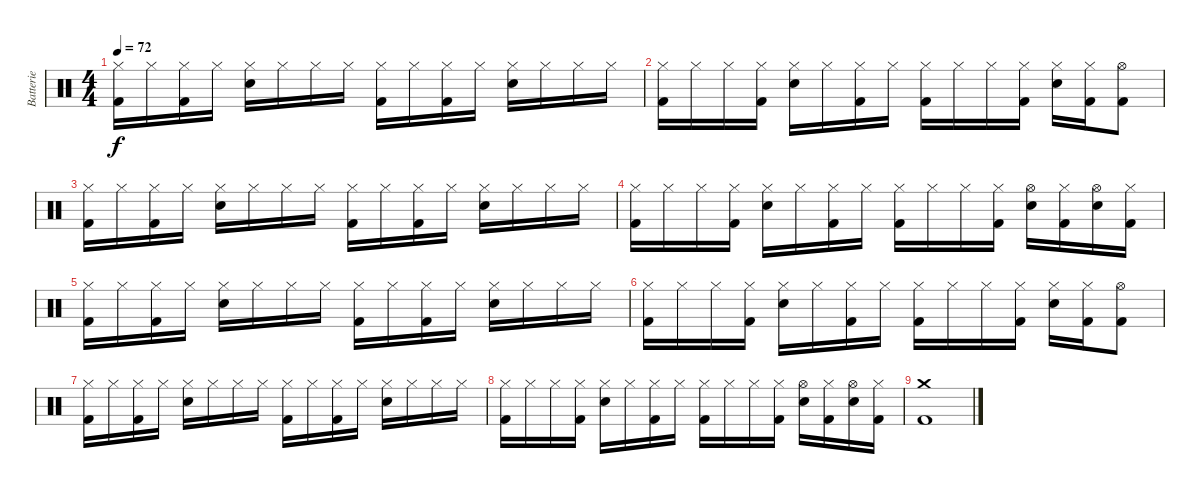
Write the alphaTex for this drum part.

\track ("Batterie" "Batterie") {instrument percussion}
\staff {score}
\articulation defaults
\ts (4 4)
\tempo 72
\clef neutral
\ks c
("Hi-Hat (closed)" "Kick (hit) 2").16{dy f} "Hi-Hat (closed)".16 ("Hi-Hat (closed)" "Kick (hit) 2").16 "Hi-Hat (closed)".16 ("Hi-Hat (closed)" "Snare (hit) 2").16 "Hi-Hat (closed)".16 "Hi-Hat (closed)".16 "Hi-Hat (closed)".16 ("Hi-Hat (closed)" "Kick (hit) 2").16 "Hi-Hat (closed)".16 ("Hi-Hat (closed)" "Kick (hit) 2").16 "Hi-Hat (closed)".16 ("Hi-Hat (closed)" "Snare (hit) 2").16 "Hi-Hat (closed)".16 "Hi-Hat (closed)".16 "Hi-Hat (closed)".16 |
("Hi-Hat (closed)" "Kick (hit) 2").16 "Hi-Hat (closed)".16 "Hi-Hat (closed)".16 ("Hi-Hat (closed)" "Kick (hit) 2").16 ("Hi-Hat (closed)" "Snare (hit) 2").16 "Hi-Hat (closed)".16 ("Hi-Hat (closed)" "Kick (hit) 2").16 "Hi-Hat (closed)".16 ("Hi-Hat (closed)" "Kick (hit) 2").16 "Hi-Hat (closed)".16 "Hi-Hat (closed)".16 ("Hi-Hat (closed)" "Kick (hit) 2").16 ("Hi-Hat (closed)" "Snare (hit) 2").16 ("Hi-Hat (closed)" "Kick (hit) 2").16 ("Hi-Hat (open)" "Kick (hit) 2").8 |
("Hi-Hat (closed)" "Kick (hit) 2").16 "Hi-Hat (closed)".16 ("Hi-Hat (closed)" "Kick (hit) 2").16 "Hi-Hat (closed)".16 ("Hi-Hat (closed)" "Snare (hit) 2").16 "Hi-Hat (closed)".16 "Hi-Hat (closed)".16 "Hi-Hat (closed)".16 ("Hi-Hat (closed)" "Kick (hit) 2").16 "Hi-Hat (closed)".16 ("Hi-Hat (closed)" "Kick (hit) 2").16 "Hi-Hat (closed)".16 ("Hi-Hat (closed)" "Snare (hit) 2").16 "Hi-Hat (closed)".16 "Hi-Hat (closed)".16 "Hi-Hat (closed)".16 |
("Hi-Hat (closed)" "Kick (hit) 2").16 "Hi-Hat (closed)".16 "Hi-Hat (closed)".16 ("Hi-Hat (closed)" "Kick (hit) 2").16 ("Hi-Hat (closed)" "Snare (hit) 2").16 "Hi-Hat (closed)".16 ("Hi-Hat (closed)" "Kick (hit) 2").16 "Hi-Hat (closed)".16 ("Hi-Hat (closed)" "Kick (hit) 2").16 "Hi-Hat (closed)".16 "Hi-Hat (closed)".16 ("Hi-Hat (closed)" "Kick (hit) 2").16 ("Hi-Hat (open)" "Snare (hit) 2").16 ("Hi-Hat (closed)" "Kick (hit) 2").16 ("Hi-Hat (open)" "Snare (hit) 2").16 ("Hi-Hat (closed)" "Kick (hit) 2").16 |
("Hi-Hat (closed)" "Kick (hit) 2").16 "Hi-Hat (closed)".16 ("Hi-Hat (closed)" "Kick (hit) 2").16 "Hi-Hat (closed)".16 ("Hi-Hat (closed)" "Snare (hit) 2").16 "Hi-Hat (closed)".16 "Hi-Hat (closed)".16 "Hi-Hat (closed)".16 ("Hi-Hat (closed)" "Kick (hit) 2").16 "Hi-Hat (closed)".16 ("Hi-Hat (closed)" "Kick (hit) 2").16 "Hi-Hat (closed)".16 ("Hi-Hat (closed)" "Snare (hit) 2").16 "Hi-Hat (closed)".16 "Hi-Hat (closed)".16 "Hi-Hat (closed)".16 |
("Hi-Hat (closed)" "Kick (hit) 2").16 "Hi-Hat (closed)".16 "Hi-Hat (closed)".16 ("Hi-Hat (closed)" "Kick (hit) 2").16 ("Hi-Hat (closed)" "Snare (hit) 2").16 "Hi-Hat (closed)".16 ("Hi-Hat (closed)" "Kick (hit) 2").16 "Hi-Hat (closed)".16 ("Hi-Hat (closed)" "Kick (hit) 2").16 "Hi-Hat (closed)".16 "Hi-Hat (closed)".16 ("Hi-Hat (closed)" "Kick (hit) 2").16 ("Hi-Hat (closed)" "Snare (hit) 2").16 ("Hi-Hat (closed)" "Kick (hit) 2").16 ("Hi-Hat (open)" "Kick (hit) 2").8 |
("Hi-Hat (closed)" "Kick (hit) 2").16 "Hi-Hat (closed)".16 ("Hi-Hat (closed)" "Kick (hit) 2").16 "Hi-Hat (closed)".16 ("Hi-Hat (closed)" "Snare (hit) 2").16 "Hi-Hat (closed)".16 "Hi-Hat (closed)".16 "Hi-Hat (closed)".16 ("Hi-Hat (closed)" "Kick (hit) 2").16 "Hi-Hat (closed)".16 ("Hi-Hat (closed)" "Kick (hit) 2").16 "Hi-Hat (closed)".16 ("Hi-Hat (closed)" "Snare (hit) 2").16 "Hi-Hat (closed)".16 "Hi-Hat (closed)".16 "Hi-Hat (closed)".16 |
("Hi-Hat (closed)" "Kick (hit) 2").16 "Hi-Hat (closed)".16 "Hi-Hat (closed)".16 ("Hi-Hat (closed)" "Kick (hit) 2").16 ("Hi-Hat (closed)" "Snare (hit) 2").16 "Hi-Hat (closed)".16 ("Hi-Hat (closed)" "Kick (hit) 2").16 "Hi-Hat (closed)".16 ("Hi-Hat (closed)" "Kick (hit) 2").16 "Hi-Hat (closed)".16 "Hi-Hat (closed)".16 ("Hi-Hat (closed)" "Kick (hit) 2").16 ("Hi-Hat (open)" "Snare (hit) 2").16 ("Hi-Hat (closed)" "Kick (hit) 2").16 ("Hi-Hat (open)" "Snare (hit) 2").16 ("Hi-Hat (closed)" "Kick (hit) 2").16 |
("Crash medium (hit)" "Kick (hit) 2").1
